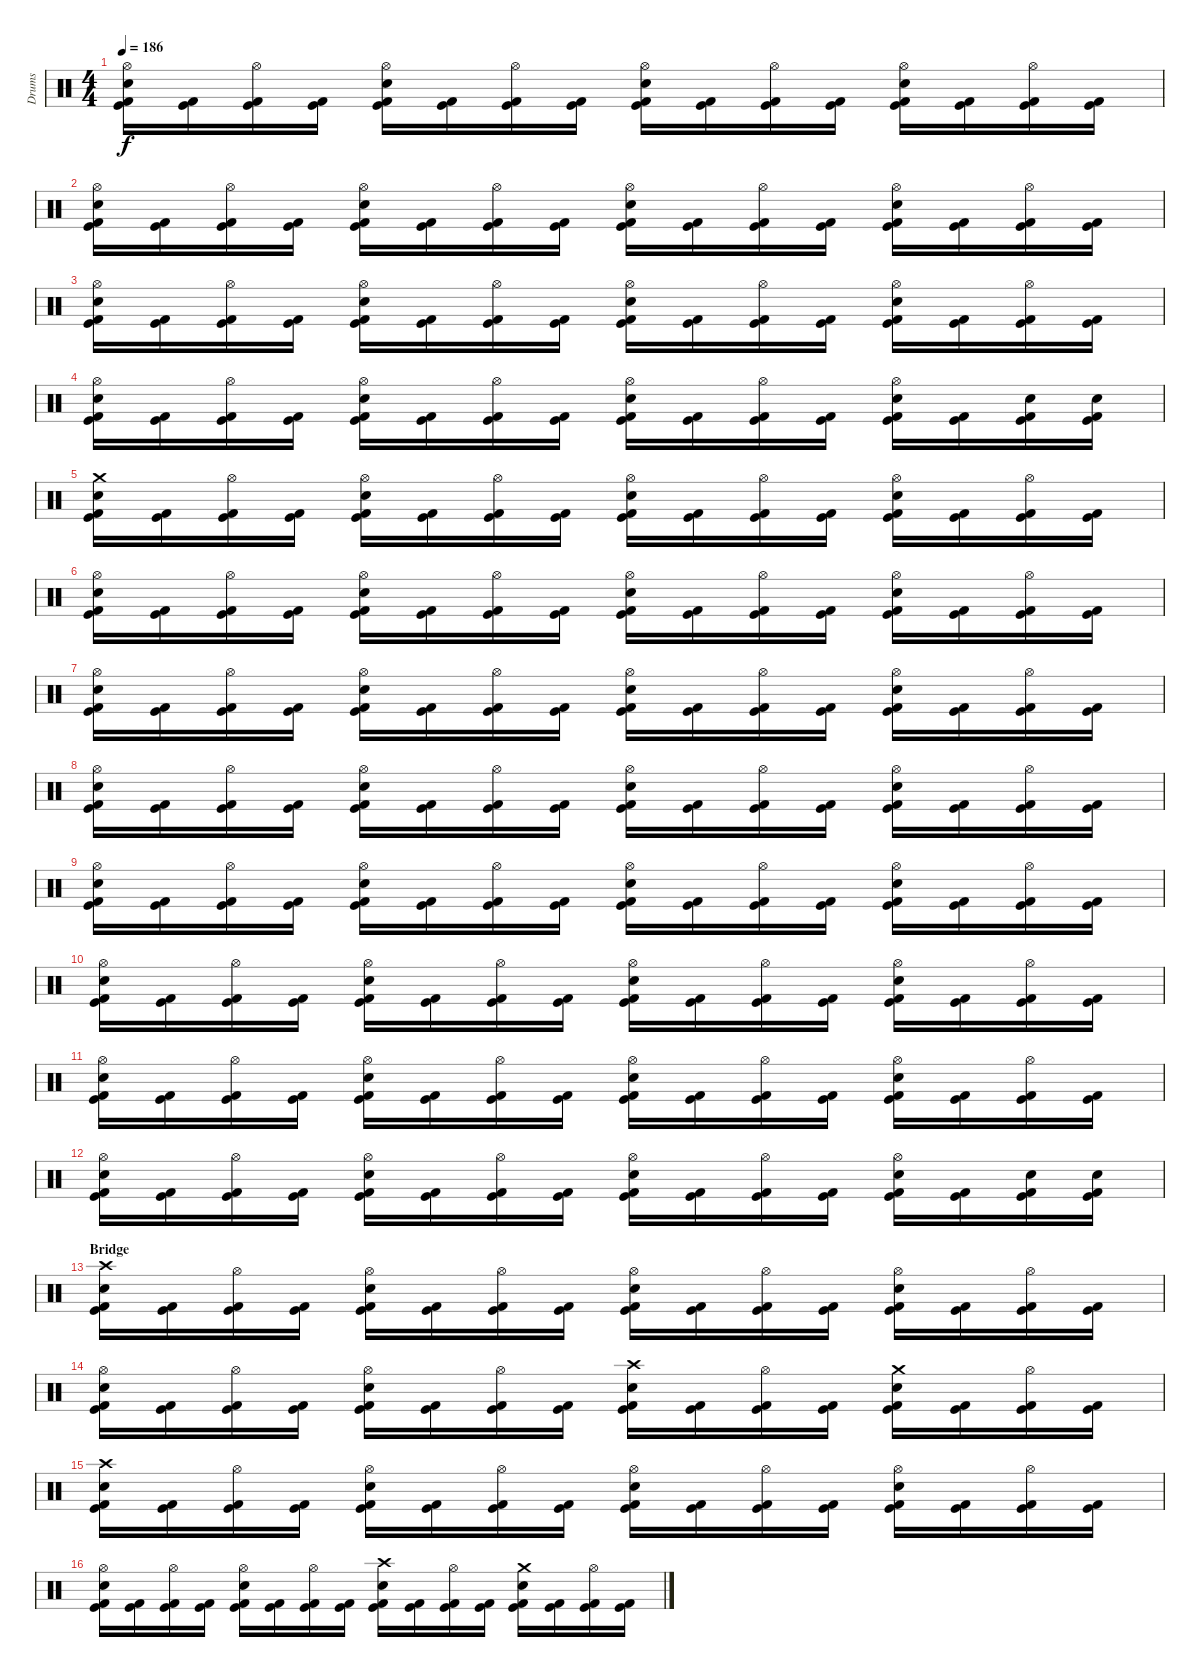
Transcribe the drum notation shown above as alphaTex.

\track ("Drums" "Drums") {instrument percussion}
\staff {score}
\articulation defaults
\ts (4 4)
\tempo 186
\clef neutral
\ks c
("Hi-Hat (open)" "Electric Snare (hit)" "Kick (hit)" "Kick (hit) 2").16{dy f} ("Kick (hit)" "Kick (hit) 2").16 ("Hi-Hat (open)" "Kick (hit)" "Kick (hit) 2").16 ("Kick (hit)" "Kick (hit) 2").16 ("Hi-Hat (open)" "Electric Snare (hit)" "Kick (hit)" "Kick (hit) 2").16 ("Kick (hit)" "Kick (hit) 2").16 ("Hi-Hat (open)" "Kick (hit)" "Kick (hit) 2").16 ("Kick (hit)" "Kick (hit) 2").16 ("Hi-Hat (open)" "Electric Snare (hit)" "Kick (hit)" "Kick (hit) 2").16 ("Kick (hit)" "Kick (hit) 2").16 ("Hi-Hat (open)" "Kick (hit)" "Kick (hit) 2").16 ("Kick (hit)" "Kick (hit) 2").16 ("Hi-Hat (open)" "Electric Snare (hit)" "Kick (hit)" "Kick (hit) 2").16 ("Kick (hit)" "Kick (hit) 2").16 ("Hi-Hat (open)" "Kick (hit)" "Kick (hit) 2").16 ("Kick (hit)" "Kick (hit) 2").16 |
("Hi-Hat (open)" "Electric Snare (hit)" "Kick (hit)" "Kick (hit) 2").16 ("Kick (hit)" "Kick (hit) 2").16 ("Hi-Hat (open)" "Kick (hit)" "Kick (hit) 2").16 ("Kick (hit)" "Kick (hit) 2").16 ("Hi-Hat (open)" "Electric Snare (hit)" "Kick (hit)" "Kick (hit) 2").16 ("Kick (hit)" "Kick (hit) 2").16 ("Hi-Hat (open)" "Kick (hit)" "Kick (hit) 2").16 ("Kick (hit)" "Kick (hit) 2").16 ("Hi-Hat (open)" "Electric Snare (hit)" "Kick (hit)" "Kick (hit) 2").16 ("Kick (hit)" "Kick (hit) 2").16 ("Hi-Hat (open)" "Kick (hit)" "Kick (hit) 2").16 ("Kick (hit)" "Kick (hit) 2").16 ("Hi-Hat (open)" "Electric Snare (hit)" "Kick (hit)" "Kick (hit) 2").16 ("Kick (hit)" "Kick (hit) 2").16 ("Hi-Hat (open)" "Kick (hit)" "Kick (hit) 2").16 ("Kick (hit)" "Kick (hit) 2").16 |
("Hi-Hat (open)" "Electric Snare (hit)" "Kick (hit)" "Kick (hit) 2").16 ("Kick (hit)" "Kick (hit) 2").16 ("Hi-Hat (open)" "Kick (hit)" "Kick (hit) 2").16 ("Kick (hit)" "Kick (hit) 2").16 ("Hi-Hat (open)" "Electric Snare (hit)" "Kick (hit)" "Kick (hit) 2").16 ("Kick (hit)" "Kick (hit) 2").16 ("Hi-Hat (open)" "Kick (hit)" "Kick (hit) 2").16 ("Kick (hit)" "Kick (hit) 2").16 ("Hi-Hat (open)" "Electric Snare (hit)" "Kick (hit)" "Kick (hit) 2").16 ("Kick (hit)" "Kick (hit) 2").16 ("Hi-Hat (open)" "Kick (hit)" "Kick (hit) 2").16 ("Kick (hit)" "Kick (hit) 2").16 ("Hi-Hat (open)" "Electric Snare (hit)" "Kick (hit)" "Kick (hit) 2").16 ("Kick (hit)" "Kick (hit) 2").16 ("Hi-Hat (open)" "Kick (hit)" "Kick (hit) 2").16 ("Kick (hit)" "Kick (hit) 2").16 |
("Hi-Hat (open)" "Electric Snare (hit)" "Kick (hit)" "Kick (hit) 2").16 ("Kick (hit)" "Kick (hit) 2").16 ("Hi-Hat (open)" "Kick (hit)" "Kick (hit) 2").16 ("Kick (hit)" "Kick (hit) 2").16 ("Hi-Hat (open)" "Electric Snare (hit)" "Kick (hit)" "Kick (hit) 2").16 ("Kick (hit)" "Kick (hit) 2").16 ("Hi-Hat (open)" "Kick (hit)" "Kick (hit) 2").16 ("Kick (hit)" "Kick (hit) 2").16 ("Hi-Hat (open)" "Electric Snare (hit)" "Kick (hit)" "Kick (hit) 2").16 ("Kick (hit)" "Kick (hit) 2").16 ("Hi-Hat (open)" "Kick (hit)" "Kick (hit) 2").16 ("Kick (hit)" "Kick (hit) 2").16 ("Hi-Hat (open)" "Electric Snare (hit)" "Kick (hit)" "Kick (hit) 2").16 ("Kick (hit)" "Kick (hit) 2").16 ("Electric Snare (hit)" "Kick (hit)" "Kick (hit) 2").16 ("Electric Snare (hit)" "Kick (hit)" "Kick (hit) 2").16 |
("Crash medium (hit)" "Electric Snare (hit)" "Kick (hit)" "Kick (hit) 2").16 ("Kick (hit)" "Kick (hit) 2").16 ("Hi-Hat (open)" "Kick (hit)" "Kick (hit) 2").16 ("Kick (hit)" "Kick (hit) 2").16 ("Hi-Hat (open)" "Electric Snare (hit)" "Kick (hit)" "Kick (hit) 2").16 ("Kick (hit)" "Kick (hit) 2").16 ("Hi-Hat (open)" "Kick (hit)" "Kick (hit) 2").16 ("Kick (hit)" "Kick (hit) 2").16 ("Hi-Hat (open)" "Electric Snare (hit)" "Kick (hit)" "Kick (hit) 2").16 ("Kick (hit)" "Kick (hit) 2").16 ("Hi-Hat (open)" "Kick (hit)" "Kick (hit) 2").16 ("Kick (hit)" "Kick (hit) 2").16 ("Hi-Hat (open)" "Electric Snare (hit)" "Kick (hit)" "Kick (hit) 2").16 ("Kick (hit)" "Kick (hit) 2").16 ("Hi-Hat (open)" "Kick (hit)" "Kick (hit) 2").16 ("Kick (hit)" "Kick (hit) 2").16 |
("Hi-Hat (open)" "Electric Snare (hit)" "Kick (hit)" "Kick (hit) 2").16 ("Kick (hit)" "Kick (hit) 2").16 ("Hi-Hat (open)" "Kick (hit)" "Kick (hit) 2").16 ("Kick (hit)" "Kick (hit) 2").16 ("Hi-Hat (open)" "Electric Snare (hit)" "Kick (hit)" "Kick (hit) 2").16 ("Kick (hit)" "Kick (hit) 2").16 ("Hi-Hat (open)" "Kick (hit)" "Kick (hit) 2").16 ("Kick (hit)" "Kick (hit) 2").16 ("Hi-Hat (open)" "Electric Snare (hit)" "Kick (hit)" "Kick (hit) 2").16 ("Kick (hit)" "Kick (hit) 2").16 ("Hi-Hat (open)" "Kick (hit)" "Kick (hit) 2").16 ("Kick (hit)" "Kick (hit) 2").16 ("Hi-Hat (open)" "Electric Snare (hit)" "Kick (hit)" "Kick (hit) 2").16 ("Kick (hit)" "Kick (hit) 2").16 ("Hi-Hat (open)" "Kick (hit)" "Kick (hit) 2").16 ("Kick (hit)" "Kick (hit) 2").16 |
("Hi-Hat (open)" "Electric Snare (hit)" "Kick (hit)" "Kick (hit) 2").16 ("Kick (hit)" "Kick (hit) 2").16 ("Hi-Hat (open)" "Kick (hit)" "Kick (hit) 2").16 ("Kick (hit)" "Kick (hit) 2").16 ("Hi-Hat (open)" "Electric Snare (hit)" "Kick (hit)" "Kick (hit) 2").16 ("Kick (hit)" "Kick (hit) 2").16 ("Hi-Hat (open)" "Kick (hit)" "Kick (hit) 2").16 ("Kick (hit)" "Kick (hit) 2").16 ("Hi-Hat (open)" "Electric Snare (hit)" "Kick (hit)" "Kick (hit) 2").16 ("Kick (hit)" "Kick (hit) 2").16 ("Hi-Hat (open)" "Kick (hit)" "Kick (hit) 2").16 ("Kick (hit)" "Kick (hit) 2").16 ("Hi-Hat (open)" "Electric Snare (hit)" "Kick (hit)" "Kick (hit) 2").16 ("Kick (hit)" "Kick (hit) 2").16 ("Hi-Hat (open)" "Kick (hit)" "Kick (hit) 2").16 ("Kick (hit)" "Kick (hit) 2").16 |
("Hi-Hat (open)" "Electric Snare (hit)" "Kick (hit)" "Kick (hit) 2").16 ("Kick (hit)" "Kick (hit) 2").16 ("Hi-Hat (open)" "Kick (hit)" "Kick (hit) 2").16 ("Kick (hit)" "Kick (hit) 2").16 ("Hi-Hat (open)" "Electric Snare (hit)" "Kick (hit)" "Kick (hit) 2").16 ("Kick (hit)" "Kick (hit) 2").16 ("Hi-Hat (open)" "Kick (hit)" "Kick (hit) 2").16 ("Kick (hit)" "Kick (hit) 2").16 ("Hi-Hat (open)" "Electric Snare (hit)" "Kick (hit)" "Kick (hit) 2").16 ("Kick (hit)" "Kick (hit) 2").16 ("Hi-Hat (open)" "Kick (hit)" "Kick (hit) 2").16 ("Kick (hit)" "Kick (hit) 2").16 ("Hi-Hat (open)" "Electric Snare (hit)" "Kick (hit)" "Kick (hit) 2").16 ("Kick (hit)" "Kick (hit) 2").16 ("Hi-Hat (open)" "Kick (hit)" "Kick (hit) 2").16 ("Kick (hit)" "Kick (hit) 2").16 |
("Hi-Hat (open)" "Electric Snare (hit)" "Kick (hit)" "Kick (hit) 2").16 ("Kick (hit)" "Kick (hit) 2").16 ("Hi-Hat (open)" "Kick (hit)" "Kick (hit) 2").16 ("Kick (hit)" "Kick (hit) 2").16 ("Hi-Hat (open)" "Electric Snare (hit)" "Kick (hit)" "Kick (hit) 2").16 ("Kick (hit)" "Kick (hit) 2").16 ("Hi-Hat (open)" "Kick (hit)" "Kick (hit) 2").16 ("Kick (hit)" "Kick (hit) 2").16 ("Hi-Hat (open)" "Electric Snare (hit)" "Kick (hit)" "Kick (hit) 2").16 ("Kick (hit)" "Kick (hit) 2").16 ("Hi-Hat (open)" "Kick (hit)" "Kick (hit) 2").16 ("Kick (hit)" "Kick (hit) 2").16 ("Hi-Hat (open)" "Electric Snare (hit)" "Kick (hit)" "Kick (hit) 2").16 ("Kick (hit)" "Kick (hit) 2").16 ("Hi-Hat (open)" "Kick (hit)" "Kick (hit) 2").16 ("Kick (hit)" "Kick (hit) 2").16 |
("Hi-Hat (open)" "Electric Snare (hit)" "Kick (hit)" "Kick (hit) 2").16 ("Kick (hit)" "Kick (hit) 2").16 ("Hi-Hat (open)" "Kick (hit)" "Kick (hit) 2").16 ("Kick (hit)" "Kick (hit) 2").16 ("Hi-Hat (open)" "Electric Snare (hit)" "Kick (hit)" "Kick (hit) 2").16 ("Kick (hit)" "Kick (hit) 2").16 ("Hi-Hat (open)" "Kick (hit)" "Kick (hit) 2").16 ("Kick (hit)" "Kick (hit) 2").16 ("Hi-Hat (open)" "Electric Snare (hit)" "Kick (hit)" "Kick (hit) 2").16 ("Kick (hit)" "Kick (hit) 2").16 ("Hi-Hat (open)" "Kick (hit)" "Kick (hit) 2").16 ("Kick (hit)" "Kick (hit) 2").16 ("Hi-Hat (open)" "Electric Snare (hit)" "Kick (hit)" "Kick (hit) 2").16 ("Kick (hit)" "Kick (hit) 2").16 ("Hi-Hat (open)" "Kick (hit)" "Kick (hit) 2").16 ("Kick (hit)" "Kick (hit) 2").16 |
("Hi-Hat (open)" "Electric Snare (hit)" "Kick (hit)" "Kick (hit) 2").16 ("Kick (hit)" "Kick (hit) 2").16 ("Hi-Hat (open)" "Kick (hit)" "Kick (hit) 2").16 ("Kick (hit)" "Kick (hit) 2").16 ("Hi-Hat (open)" "Electric Snare (hit)" "Kick (hit)" "Kick (hit) 2").16 ("Kick (hit)" "Kick (hit) 2").16 ("Hi-Hat (open)" "Kick (hit)" "Kick (hit) 2").16 ("Kick (hit)" "Kick (hit) 2").16 ("Hi-Hat (open)" "Electric Snare (hit)" "Kick (hit)" "Kick (hit) 2").16 ("Kick (hit)" "Kick (hit) 2").16 ("Hi-Hat (open)" "Kick (hit)" "Kick (hit) 2").16 ("Kick (hit)" "Kick (hit) 2").16 ("Hi-Hat (open)" "Electric Snare (hit)" "Kick (hit)" "Kick (hit) 2").16 ("Kick (hit)" "Kick (hit) 2").16 ("Hi-Hat (open)" "Kick (hit)" "Kick (hit) 2").16 ("Kick (hit)" "Kick (hit) 2").16 |
("Hi-Hat (open)" "Electric Snare (hit)" "Kick (hit)" "Kick (hit) 2").16 ("Kick (hit)" "Kick (hit) 2").16 ("Hi-Hat (open)" "Kick (hit)" "Kick (hit) 2").16 ("Kick (hit)" "Kick (hit) 2").16 ("Hi-Hat (open)" "Electric Snare (hit)" "Kick (hit)" "Kick (hit) 2").16 ("Kick (hit)" "Kick (hit) 2").16 ("Hi-Hat (open)" "Kick (hit)" "Kick (hit) 2").16 ("Kick (hit)" "Kick (hit) 2").16 ("Hi-Hat (open)" "Electric Snare (hit)" "Kick (hit)" "Kick (hit) 2").16 ("Kick (hit)" "Kick (hit) 2").16 ("Hi-Hat (open)" "Kick (hit)" "Kick (hit) 2").16 ("Kick (hit)" "Kick (hit) 2").16 ("Hi-Hat (open)" "Electric Snare (hit)" "Kick (hit)" "Kick (hit) 2").16 ("Kick (hit)" "Kick (hit) 2").16 ("Electric Snare (hit)" "Kick (hit)" "Kick (hit) 2").16 ("Electric Snare (hit)" "Kick (hit)" "Kick (hit) 2").16 |
\section ("" "Bridge")
("Crash high (hit)" "Electric Snare (hit)" "Kick (hit)" "Kick (hit) 2").16 ("Kick (hit)" "Kick (hit) 2").16 ("Hi-Hat (open)" "Kick (hit)" "Kick (hit) 2").16 ("Kick (hit)" "Kick (hit) 2").16 ("Hi-Hat (open)" "Electric Snare (hit)" "Kick (hit)" "Kick (hit) 2").16 ("Kick (hit)" "Kick (hit) 2").16 ("Hi-Hat (open)" "Kick (hit)" "Kick (hit) 2").16 ("Kick (hit)" "Kick (hit) 2").16 ("Hi-Hat (open)" "Electric Snare (hit)" "Kick (hit)" "Kick (hit) 2").16 ("Kick (hit)" "Kick (hit) 2").16 ("Hi-Hat (open)" "Kick (hit)" "Kick (hit) 2").16 ("Kick (hit)" "Kick (hit) 2").16 ("Hi-Hat (open)" "Electric Snare (hit)" "Kick (hit)" "Kick (hit) 2").16 ("Kick (hit)" "Kick (hit) 2").16 ("Hi-Hat (open)" "Kick (hit)" "Kick (hit) 2").16 ("Kick (hit)" "Kick (hit) 2").16 |
("Hi-Hat (open)" "Electric Snare (hit)" "Kick (hit)" "Kick (hit) 2").16 ("Kick (hit)" "Kick (hit) 2").16 ("Hi-Hat (open)" "Kick (hit)" "Kick (hit) 2").16 ("Kick (hit)" "Kick (hit) 2").16 ("Hi-Hat (open)" "Electric Snare (hit)" "Kick (hit)" "Kick (hit) 2").16 ("Kick (hit)" "Kick (hit) 2").16 ("Hi-Hat (open)" "Kick (hit)" "Kick (hit) 2").16 ("Kick (hit)" "Kick (hit) 2").16 ("Crash high (hit)" "Electric Snare (hit)" "Kick (hit)" "Kick (hit) 2").16 ("Kick (hit)" "Kick (hit) 2").16 ("Hi-Hat (open)" "Kick (hit)" "Kick (hit) 2").16 ("Kick (hit)" "Kick (hit) 2").16 ("Crash medium (hit)" "Electric Snare (hit)" "Kick (hit)" "Kick (hit) 2").16 ("Kick (hit)" "Kick (hit) 2").16 ("Hi-Hat (open)" "Kick (hit)" "Kick (hit) 2").16 ("Kick (hit)" "Kick (hit) 2").16 |
("Crash high (hit)" "Electric Snare (hit)" "Kick (hit)" "Kick (hit) 2").16 ("Kick (hit)" "Kick (hit) 2").16 ("Hi-Hat (open)" "Kick (hit)" "Kick (hit) 2").16 ("Kick (hit)" "Kick (hit) 2").16 ("Hi-Hat (open)" "Electric Snare (hit)" "Kick (hit)" "Kick (hit) 2").16 ("Kick (hit)" "Kick (hit) 2").16 ("Hi-Hat (open)" "Kick (hit)" "Kick (hit) 2").16 ("Kick (hit)" "Kick (hit) 2").16 ("Hi-Hat (open)" "Electric Snare (hit)" "Kick (hit)" "Kick (hit) 2").16 ("Kick (hit)" "Kick (hit) 2").16 ("Hi-Hat (open)" "Kick (hit)" "Kick (hit) 2").16 ("Kick (hit)" "Kick (hit) 2").16 ("Hi-Hat (open)" "Electric Snare (hit)" "Kick (hit)" "Kick (hit) 2").16 ("Kick (hit)" "Kick (hit) 2").16 ("Hi-Hat (open)" "Kick (hit)" "Kick (hit) 2").16 ("Kick (hit)" "Kick (hit) 2").16 |
("Hi-Hat (open)" "Electric Snare (hit)" "Kick (hit)" "Kick (hit) 2").16 ("Kick (hit)" "Kick (hit) 2").16 ("Hi-Hat (open)" "Kick (hit)" "Kick (hit) 2").16 ("Kick (hit)" "Kick (hit) 2").16 ("Hi-Hat (open)" "Electric Snare (hit)" "Kick (hit)" "Kick (hit) 2").16 ("Kick (hit)" "Kick (hit) 2").16 ("Hi-Hat (open)" "Kick (hit)" "Kick (hit) 2").16 ("Kick (hit)" "Kick (hit) 2").16 ("Crash high (hit)" "Electric Snare (hit)" "Kick (hit)" "Kick (hit) 2").16 ("Kick (hit)" "Kick (hit) 2").16 ("Hi-Hat (open)" "Kick (hit)" "Kick (hit) 2").16 ("Kick (hit)" "Kick (hit) 2").16 ("Crash medium (hit)" "Electric Snare (hit)" "Kick (hit)" "Kick (hit) 2").16 ("Kick (hit)" "Kick (hit) 2").16 ("Hi-Hat (open)" "Kick (hit)" "Kick (hit) 2").16 ("Kick (hit)" "Kick (hit) 2").16
